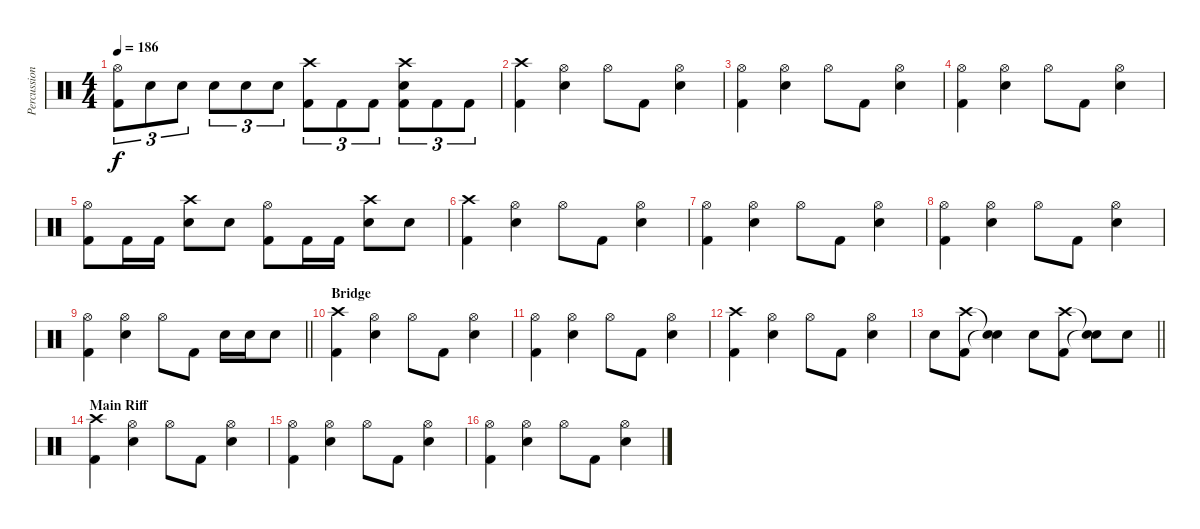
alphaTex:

\track ("Percussion" "Percussion") {instrument percussion}
\staff {score}
\articulation defaults
\ts (4 4)
\tempo 186
\clef neutral
\ks c
("Hi-Hat (open)" "Kick (hit) 2").8{tu (3 2) dy f} "Snare (hit) 2".8{tu (3 2)} "Snare (hit) 2".8{tu (3 2)} "Snare (hit) 2".8{tu (3 2)} "Snare (hit) 2".8{tu (3 2)} "Snare (hit) 2".8{tu (3 2)} ("Crash high (hit)" "Kick (hit) 2").8{tu (3 2)} "Kick (hit) 2".8{tu (3 2)} "Kick (hit) 2".8{tu (3 2)} ("Crash high (hit)" "Snare (hit) 2" "Kick (hit) 2").8{tu (3 2)} "Kick (hit) 2".8{tu (3 2)} "Kick (hit) 2".8{tu (3 2)} |
("Crash high (hit)" "Kick (hit) 2").4 ("Hi-Hat (open)" "Snare (hit) 2").4 "Hi-Hat (open)".8 "Kick (hit) 2".8 ("Hi-Hat (open)" "Snare (hit) 2").4 |
("Hi-Hat (open)" "Kick (hit) 2").4 ("Hi-Hat (open)" "Snare (hit) 2").4 "Hi-Hat (open)".8 "Kick (hit) 2".8 ("Hi-Hat (open)" "Snare (hit) 2").4 |
("Hi-Hat (open)" "Kick (hit) 2").4 ("Hi-Hat (open)" "Snare (hit) 2").4 "Hi-Hat (open)".8 "Kick (hit) 2".8 ("Hi-Hat (open)" "Snare (hit) 2").4 |
("Hi-Hat (open)" "Kick (hit) 2").8 "Kick (hit) 2".16 "Kick (hit) 2".16 ("Crash high (hit)" "Snare (hit) 2").8 "Snare (hit) 2".8 ("Hi-Hat (open)" "Kick (hit) 2").8 "Kick (hit) 2".16 "Kick (hit) 2".16 ("Crash high (hit)" "Snare (hit) 2").8 "Snare (hit) 2".8 |
("Crash high (hit)" "Kick (hit) 2").4 ("Hi-Hat (open)" "Snare (hit) 2").4 "Hi-Hat (open)".8 "Kick (hit) 2".8 ("Hi-Hat (open)" "Snare (hit) 2").4 |
("Hi-Hat (open)" "Kick (hit) 2").4 ("Hi-Hat (open)" "Snare (hit) 2").4 "Hi-Hat (open)".8 "Kick (hit) 2".8 ("Hi-Hat (open)" "Snare (hit) 2").4 |
("Hi-Hat (open)" "Kick (hit) 2").4 ("Hi-Hat (open)" "Snare (hit) 2").4 "Hi-Hat (open)".8 "Kick (hit) 2".8 ("Hi-Hat (open)" "Snare (hit) 2").4 |
\barLineRight lightlight
("Hi-Hat (open)" "Kick (hit) 2").4 ("Hi-Hat (open)" "Snare (hit) 2").4 "Hi-Hat (open)".8 "Kick (hit) 2".8 "Snare (hit) 2".16 "Snare (hit) 2".16 "Snare (hit) 2".8 |
\section ("" "Bridge")
("Crash high (hit)" "Kick (hit) 2").4 ("Hi-Hat (open)" "Snare (hit) 2").4 "Hi-Hat (open)".8 "Kick (hit) 2".8 ("Hi-Hat (open)" "Snare (hit) 2").4 |
("Hi-Hat (open)" "Kick (hit) 2").4 ("Hi-Hat (open)" "Snare (hit) 2").4 "Hi-Hat (open)".8 "Kick (hit) 2".8 ("Hi-Hat (open)" "Snare (hit) 2").4 |
("Crash high (hit)" "Kick (hit) 2").4 ("Hi-Hat (open)" "Snare (hit) 2").4 "Hi-Hat (open)".8 "Kick (hit) 2".8 ("Hi-Hat (open)" "Snare (hit) 2").4 |
\barLineRight lightlight "Snare (hit) 2".8
("Crash high (hit)" "Kick (hit) 2").8 ("Snare (hit)"{t} "Snare (hit)"{t}).4 "Snare (hit) 2".8 ("Crash high (hit)" "Kick (hit) 2").8 ("Snare (hit)"{t} "Snare (hit)"{t}).8 "Snare (hit) 2".8 |
\section ("" "Main Riff")
("Crash high (hit)" "Kick (hit) 2").4 ("Hi-Hat (open)" "Snare (hit) 2").4 "Hi-Hat (open)".8 "Kick (hit) 2".8 ("Hi-Hat (open)" "Snare (hit) 2").4 |
("Hi-Hat (open)" "Kick (hit) 2").4 ("Hi-Hat (open)" "Snare (hit) 2").4 "Hi-Hat (open)".8 "Kick (hit) 2".8 ("Hi-Hat (open)" "Snare (hit) 2").4 |
("Hi-Hat (open)" "Kick (hit) 2").4 ("Hi-Hat (open)" "Snare (hit) 2").4 "Hi-Hat (open)".8 "Kick (hit) 2".8 ("Hi-Hat (open)" "Snare (hit) 2").4
